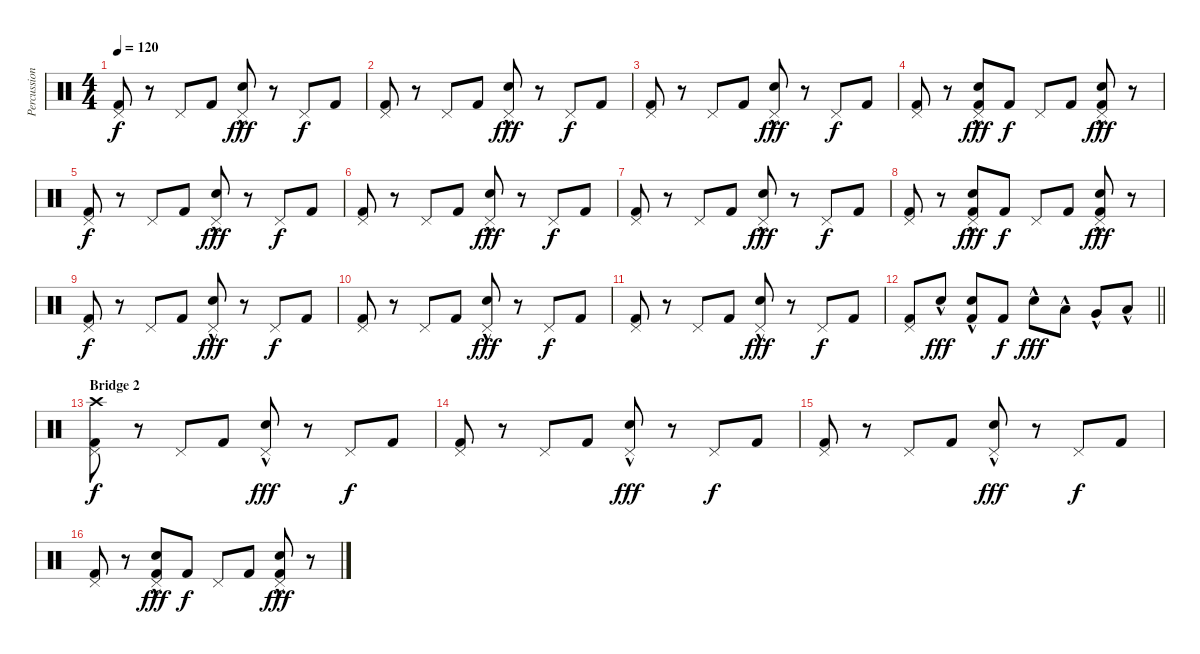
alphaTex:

\track ("Percussion" "Percussion") {instrument percussion}
\staff {score}
\articulation defaults
\ts (4 4)
\tempo 120
\clef neutral
\ks c
("Kick (hit) 2" "Pedal Hi-Hat (hit)").8{dy f} r.8 "Pedal Hi-Hat (hit)".8 "Kick (hit) 2".8 ("Snare (hit) 2"{hac} "Pedal Hi-Hat (hit)").8{dy fff} r.8 "Pedal Hi-Hat (hit)".8{dy f} "Kick (hit) 2".8 |
("Kick (hit) 2" "Pedal Hi-Hat (hit)").8 r.8 "Pedal Hi-Hat (hit)".8 "Kick (hit) 2".8 ("Snare (hit) 2"{hac} "Pedal Hi-Hat (hit)").8{dy fff} r.8 "Pedal Hi-Hat (hit)".8{dy f} "Kick (hit) 2".8 |
("Kick (hit) 2" "Pedal Hi-Hat (hit)").8 r.8 "Pedal Hi-Hat (hit)".8 "Kick (hit) 2".8 ("Snare (hit) 2"{hac} "Pedal Hi-Hat (hit)").8{dy fff} r.8 "Pedal Hi-Hat (hit)".8{dy f} "Kick (hit) 2".8 |
("Kick (hit) 2" "Pedal Hi-Hat (hit)").8 r.8 ("Kick (hit) 2" "Snare (hit) 2"{hac} "Pedal Hi-Hat (hit)").8{dy fff} "Kick (hit) 2".8{dy f} "Pedal Hi-Hat (hit)".8 "Kick (hit) 2".8 ("Kick (hit) 2" "Snare (hit) 2"{hac} "Pedal Hi-Hat (hit)").8{dy fff} r.8 |
("Kick (hit) 2" "Pedal Hi-Hat (hit)").8{dy f} r.8 "Pedal Hi-Hat (hit)".8 "Kick (hit) 2".8 ("Snare (hit) 2"{hac} "Pedal Hi-Hat (hit)").8{dy fff} r.8 "Pedal Hi-Hat (hit)".8{dy f} "Kick (hit) 2".8 |
("Kick (hit) 2" "Pedal Hi-Hat (hit)").8 r.8 "Pedal Hi-Hat (hit)".8 "Kick (hit) 2".8 ("Snare (hit) 2"{hac} "Pedal Hi-Hat (hit)").8{dy fff} r.8 "Pedal Hi-Hat (hit)".8{dy f} "Kick (hit) 2".8 |
("Kick (hit) 2" "Pedal Hi-Hat (hit)").8 r.8 "Pedal Hi-Hat (hit)".8 "Kick (hit) 2".8 ("Snare (hit) 2"{hac} "Pedal Hi-Hat (hit)").8{dy fff} r.8 "Pedal Hi-Hat (hit)".8{dy f} "Kick (hit) 2".8 |
("Kick (hit) 2" "Pedal Hi-Hat (hit)").8 r.8 ("Kick (hit) 2" "Snare (hit) 2"{hac} "Pedal Hi-Hat (hit)").8{dy fff} "Kick (hit) 2".8{dy f} "Pedal Hi-Hat (hit)".8 "Kick (hit) 2".8 ("Kick (hit) 2" "Snare (hit) 2"{hac} "Pedal Hi-Hat (hit)").8{dy fff} r.8 |
("Kick (hit) 2" "Pedal Hi-Hat (hit)").8{dy f} r.8 "Pedal Hi-Hat (hit)".8 "Kick (hit) 2".8 ("Snare (hit) 2"{hac} "Pedal Hi-Hat (hit)").8{dy fff} r.8 "Pedal Hi-Hat (hit)".8{dy f} "Kick (hit) 2".8 |
("Kick (hit) 2" "Pedal Hi-Hat (hit)").8 r.8 "Pedal Hi-Hat (hit)".8 "Kick (hit) 2".8 ("Snare (hit) 2"{hac} "Pedal Hi-Hat (hit)").8{dy fff} r.8 "Pedal Hi-Hat (hit)".8{dy f} "Kick (hit) 2".8 |
("Kick (hit) 2" "Pedal Hi-Hat (hit)").8 r.8 "Pedal Hi-Hat (hit)".8 "Kick (hit) 2".8 ("Snare (hit) 2"{hac} "Pedal Hi-Hat (hit)").8{dy fff} r.8 "Pedal Hi-Hat (hit)".8{dy f} "Kick (hit) 2".8 |
\barLineRight lightlight
("Kick (hit) 2" "Pedal Hi-Hat (hit)").8 "Snare (hit) 2"{hac}.8{dy fff} ("Kick (hit) 2" "Snare (hit) 2"{hac}).8 "Kick (hit) 2".8{dy f} "Snare (hit) 2"{hac}.8{dy fff} "Low Tom (hit)"{hac}.8 "Very Low Tom (hit)"{hac}.8 "Low Floor Tom (hit)"{hac}.8 |
\section ("" "Bridge 2")
("Kick (hit) 2" "Pedal Hi-Hat (hit)" "Crash high (hit)").8{dy f} r.8 "Pedal Hi-Hat (hit)".8 "Kick (hit) 2".8 ("Snare (hit) 2"{hac} "Pedal Hi-Hat (hit)").8{dy fff} r.8 "Pedal Hi-Hat (hit)".8{dy f} "Kick (hit) 2".8 |
("Kick (hit) 2" "Pedal Hi-Hat (hit)").8 r.8 "Pedal Hi-Hat (hit)".8 "Kick (hit) 2".8 ("Snare (hit) 2"{hac} "Pedal Hi-Hat (hit)").8{dy fff} r.8 "Pedal Hi-Hat (hit)".8{dy f} "Kick (hit) 2".8 |
("Kick (hit) 2" "Pedal Hi-Hat (hit)").8 r.8 "Pedal Hi-Hat (hit)".8 "Kick (hit) 2".8 ("Snare (hit) 2"{hac} "Pedal Hi-Hat (hit)").8{dy fff} r.8 "Pedal Hi-Hat (hit)".8{dy f} "Kick (hit) 2".8 |
("Kick (hit) 2" "Pedal Hi-Hat (hit)").8 r.8 ("Kick (hit) 2" "Snare (hit) 2"{hac} "Pedal Hi-Hat (hit)").8{dy fff} "Kick (hit) 2".8{dy f} "Pedal Hi-Hat (hit)".8 "Kick (hit) 2".8 ("Kick (hit) 2" "Snare (hit) 2"{hac} "Pedal Hi-Hat (hit)").8{dy fff} r.8
